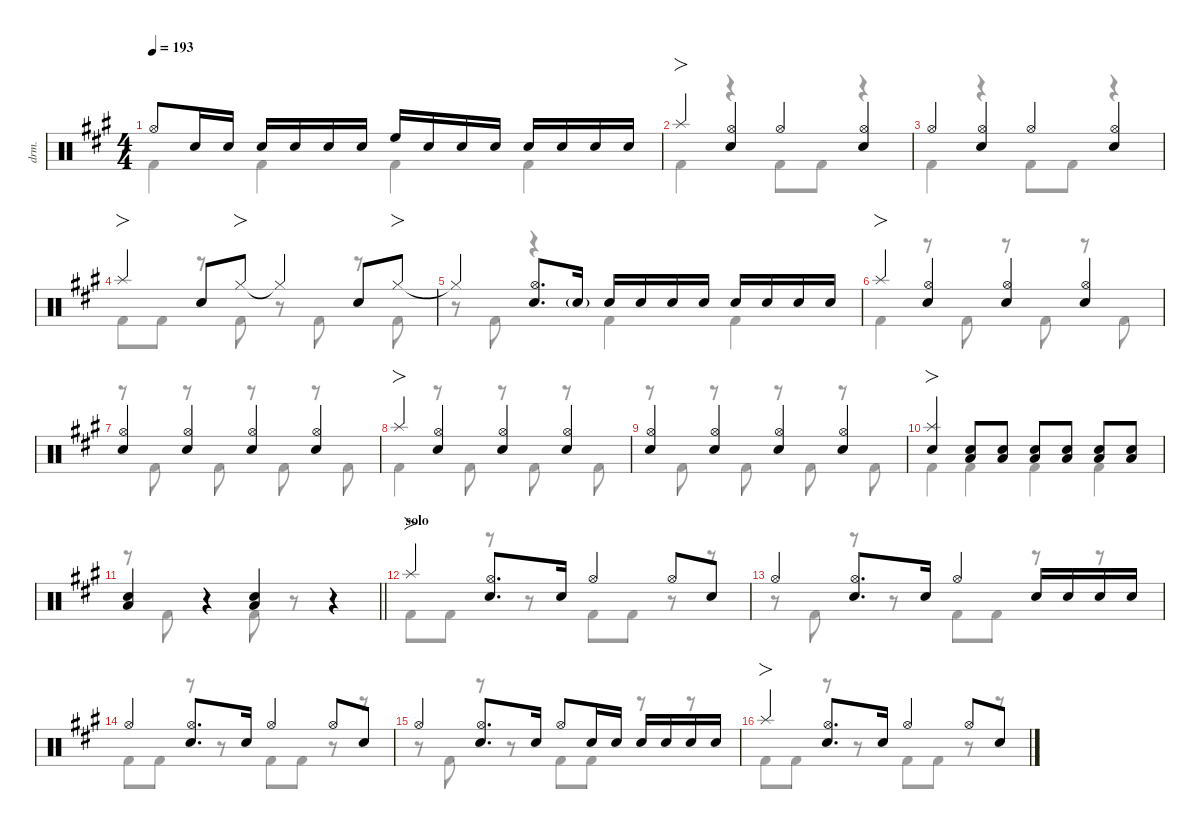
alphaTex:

\defaultSystemsLayout 4
\hideDynamics
\bracketExtendMode nobrackets
\otherSystemsTrackNameOrientation horizontal
\track ("伊地知虹夏" "drm.") {instrument percussion}
\staff {score}
\articulation defaults
\voice
\ts (4 4)
\tempo 193
\clef neutral
\ks a "Hi-Hat (open)"{acc forcenatural}.8{dy mf beam Up} "Snare (hit) 2"{acc forcenatural}.16{beam Up} "Snare (hit) 2"{acc forcenatural}.16{beam Up} "Snare (hit) 2"{acc forcenatural}.16{beam Up} "Snare (hit) 2"{acc forcenatural}.16{beam Up} "Snare (hit) 2"{acc forcenatural}.16{beam Up} "Snare (hit) 2"{acc forcenatural}.16{beam Up} "High Floor Tom (hit)"{acc forcenatural}.16{beam Up} "Snare (hit) 2"{acc forcenatural}.16{beam Up} "Snare (hit) 2"{acc forcenatural}.16{beam Up} "Snare (hit) 2"{acc forcenatural}.16{beam Up} "Snare (hit) 2"{acc forcenatural}.16{beam Up} "Snare (hit) 2"{acc forcenatural}.16{beam Up} "Snare (hit) 2"{acc forcenatural}.16{beam Up} "Snare (hit) 2"{acc forcenatural}.16{beam Up}
|
"Splash (hit)"{acc forcenatural}.4{fo beam Up} ("Hi-Hat (open)"{acc forcenatural} "Snare (hit) 2"{acc forcenatural}).4{beam Up} "Hi-Hat (open)"{acc forcenatural}.4{beam Up} ("Hi-Hat (open)"{acc forcenatural} "Snare (hit) 2"{acc forcenatural}).4{beam Up} |
"Hi-Hat (open)"{acc forcenatural}.4{beam Up} ("Hi-Hat (open)"{acc forcenatural} "Snare (hit) 2"{acc forcenatural}).4{beam Up} "Hi-Hat (open)"{acc forcenatural}.4{beam Up} ("Hi-Hat (open)"{acc forcenatural} "Snare (hit) 2"{acc forcenatural}).4{beam Up} |
"Splash (hit)"{acc forcenatural}.4{fo beam Up} "Snare (hit) 2"{acc forcenatural}.8{beam Up} "Hi-Hat (closed)"{acc forcenatural}.8{fo beam Up} "Hi-Hat (closed)"{t acc forcenatural}.4{beam Up} "Snare (hit) 2"{acc forcenatural}.8{beam Up} "Hi-Hat (closed)"{acc forcenatural}.8{fo beam Up} |
"Hi-Hat (closed)"{t acc forcenatural}.4{beam Up} ("Hi-Hat (open)"{acc forcenatural} "Snare (hit) 2"{acc forcenatural}).8{d beam Up} "Snare (hit) 2"{g acc forcenatural}.16{beam Up} "Snare (hit) 2"{acc forcenatural}.16{beam Up} "Snare (hit) 2"{acc forcenatural}.16{beam Up} "Snare (hit) 2"{acc forcenatural}.16{beam Up} "Snare (hit) 2"{acc forcenatural}.16{beam Up} "Snare (hit) 2"{acc forcenatural}.16{beam Up} "Snare (hit) 2"{acc forcenatural}.16{beam Up} "Snare (hit) 2"{acc forcenatural}.16{beam Up} "Snare (hit) 2"{acc forcenatural}.16{beam Up} |
"Splash (hit)"{acc forcenatural}.4{fo beam Up} ("Hi-Hat (open)"{acc forcenatural} "Snare (hit) 2"{acc forcenatural}).4{beam Up} ("Hi-Hat (open)"{acc forcenatural} "Snare (hit) 2"{acc forcenatural}).4{beam Up} ("Hi-Hat (open)"{acc forcenatural} "Snare (hit) 2"{acc forcenatural}).4{beam Up} |
("Hi-Hat (open)"{acc forcenatural} "Snare (hit) 2"{acc forcenatural}).4{beam Up} ("Hi-Hat (open)"{acc forcenatural} "Snare (hit) 2"{acc forcenatural}).4{beam Up} ("Hi-Hat (open)"{acc forcenatural} "Snare (hit) 2"{acc forcenatural}).4{beam Up} ("Hi-Hat (open)"{acc forcenatural} "Snare (hit) 2"{acc forcenatural}).4{beam Up} |
"Splash (hit)"{acc forcenatural}.4{fo beam Up} ("Hi-Hat (open)"{acc forcenatural} "Snare (hit) 2"{acc forcenatural}).4{beam Up} ("Hi-Hat (open)"{acc forcenatural} "Snare (hit) 2"{acc forcenatural}).4{beam Up} ("Hi-Hat (open)"{acc forcenatural} "Snare (hit) 2"{acc forcenatural}).4{beam Up} |
("Hi-Hat (open)"{acc forcenatural} "Snare (hit) 2"{acc forcenatural}).4{beam Up} ("Hi-Hat (open)"{acc forcenatural} "Snare (hit) 2"{acc forcenatural}).4{beam Up} ("Hi-Hat (open)"{acc forcenatural} "Snare (hit) 2"{acc forcenatural}).4{beam Up} ("Hi-Hat (open)"{acc forcenatural} "Snare (hit) 2"{acc forcenatural}).4{beam Up} |
("Splash (hit)"{acc forcenatural} "Snare (hit) 2"{acc forcenatural}).4{fo beam Up} ("Snare (hit) 2"{acc forcenatural} "Low Tom (hit)"{acc forcenatural}).8{beam Up} ("Snare (hit) 2"{acc forcenatural} "Low Tom (hit)"{acc forcenatural}).8{beam Up} ("Low Tom (hit)"{acc forcenatural} "Snare (hit) 2"{acc forcenatural}).8{beam Up} ("Low Tom (hit)"{acc forcenatural} "Snare (hit) 2"{acc forcenatural}).8{beam Up} ("Low Tom (hit)"{acc forcenatural} "Snare (hit) 2"{acc forcenatural}).8{beam Up} ("Low Tom (hit)"{acc forcenatural} "Snare (hit) 2"{acc forcenatural}).8{beam Up} |
\barLineRight lightlight
("Snare (hit) 2"{acc forcenatural} "Low Tom (hit)"{acc forcenatural}).4{beam Up} r.4{beam Up} ("Low Tom (hit)"{acc forcenatural} "Snare (hit) 2"{acc forcenatural}).4{beam Up} r.4{beam Up} |
\section ("" "solo")
"Splash (hit)"{acc forcenatural}.4{fo beam Up} ("Snare (hit) 2"{acc forcenatural} "Hi-Hat (open)"{acc forcenatural}).8{d beam Up} "Snare (hit) 2"{acc forcenatural}.16{beam Up} "Hi-Hat (open)"{acc forcenatural}.4{beam Up} "Hi-Hat (open)"{acc forcenatural}.8{beam Up} "Snare (hit) 2"{acc forcenatural}.8{beam Up} |
"Hi-Hat (open)"{acc forcenatural}.4{beam Up} ("Hi-Hat (open)"{acc forcenatural} "Snare (hit) 2"{acc forcenatural}).8{d beam Up} "Snare (hit) 2"{acc forcenatural}.16{beam Up} "Hi-Hat (open)"{acc forcenatural}.4{beam Up} "Snare (hit) 2"{acc forcenatural}.16{beam Up} "Snare (hit) 2"{acc forcenatural}.16{beam Up} "Snare (hit) 2"{acc forcenatural}.16{beam Up} "Snare (hit) 2"{acc forcenatural}.16{beam Up} |
"Hi-Hat (open)"{acc forcenatural}.4{beam Up} ("Snare (hit) 2"{acc forcenatural} "Hi-Hat (open)"{acc forcenatural}).8{d beam Up} "Snare (hit) 2"{acc forcenatural}.16{beam Up} "Hi-Hat (open)"{acc forcenatural}.4{beam Up} "Hi-Hat (open)"{acc forcenatural}.8{beam Up} "Snare (hit) 2"{acc forcenatural}.8{beam Up} |
"Hi-Hat (open)"{acc forcenatural}.4{beam Up} ("Hi-Hat (open)"{acc forcenatural} "Snare (hit) 2"{acc forcenatural}).8{d beam Up} "Snare (hit) 2"{acc forcenatural}.16{beam Up} "Hi-Hat (open)"{acc forcenatural}.8{beam Up} "Snare (hit) 2"{acc forcenatural}.16{beam Up} "Snare (hit) 2"{acc forcenatural}.16{beam Up} "Snare (hit) 2"{acc forcenatural}.16{beam Up} "Snare (hit) 2"{acc forcenatural}.16{beam Up} "Snare (hit) 2"{acc forcenatural}.16{beam Up} "Snare (hit) 2"{acc forcenatural}.16{beam Up} |
"Splash (hit)"{acc forcenatural}.4{fo beam Up} ("Snare (hit) 2"{acc forcenatural} "Hi-Hat (open)"{acc forcenatural}).8{d beam Up} "Snare (hit) 2"{acc forcenatural}.16{beam Up} "Hi-Hat (open)"{acc forcenatural}.4{beam Up} "Hi-Hat (open)"{acc forcenatural}.8{beam Up} "Snare (hit) 2"{acc forcenatural}.8{beam Up}
\voice
\clef neutral
\ottava regular
\simile none
\ks a "Kick (hit) 2"{acc forcenatural}.4{dy mf beam Down} "Kick (hit) 2"{acc forcenatural}.4{beam Down} "Kick (hit) 2"{acc forcenatural}.4{beam Down} "Kick (hit) 2"{acc forcenatural}.4{beam Down}
|
"Kick (hit) 2"{acc forcenatural}.4{beam Down} r.4{beam Down} "Kick (hit) 2"{acc forcenatural}.8{beam Down} "Kick (hit) 2"{acc forcenatural}.8{beam Down} r.4{beam Down} |
"Kick (hit) 2"{acc forcenatural}.4{beam Down} r.4{beam Down} "Kick (hit) 2"{acc forcenatural}.8{beam Down} "Kick (hit) 2"{acc forcenatural}.8{beam Down} r.4{beam Down} |
"Kick (hit) 2"{acc forcenatural}.8{beam Down} "Kick (hit) 2"{acc forcenatural}.8{beam Down} r.8{beam Down} "Kick (hit) 2"{acc forcenatural}.8{beam Down} r.8{beam Down} "Kick (hit) 2"{acc forcenatural}.8{beam Down} r.8{beam Down} "Kick (hit) 2"{acc forcenatural}.8{beam Down} |
r.8{beam Down} "Kick (hit) 2"{acc forcenatural}.8{beam Down} r.4{beam Down} "Kick (hit) 2"{acc forcenatural}.4{beam Down} "Kick (hit) 2"{acc forcenatural}.4{beam Down} |
"Kick (hit) 2"{acc forcenatural}.4{beam Down} r.8{beam Down} "Kick (hit) 2"{acc forcenatural}.8{beam Down} r.8{beam Down} "Kick (hit) 2"{acc forcenatural}.8{beam Down} r.8{beam Down} "Kick (hit) 2"{acc forcenatural}.8{beam Down} |
r.8{beam Down} "Kick (hit) 2"{acc forcenatural}.8{beam Down} r.8{beam Down} "Kick (hit) 2"{acc forcenatural}.8{beam Down} r.8{beam Down} "Kick (hit) 2"{acc forcenatural}.8{beam Down} r.8{beam Down} "Kick (hit) 2"{acc forcenatural}.8{beam Down} |
"Kick (hit) 2"{acc forcenatural}.4{beam Down} r.8{beam Down} "Kick (hit) 2"{acc forcenatural}.8{beam Down} r.8{beam Down} "Kick (hit) 2"{acc forcenatural}.8{beam Down} r.8{beam Down} "Kick (hit) 2"{acc forcenatural}.8{beam Down} |
r.8{beam Down} "Kick (hit) 2"{acc forcenatural}.8{beam Down} r.8{beam Down} "Kick (hit) 2"{acc forcenatural}.8{beam Down} r.8{beam Down} "Kick (hit) 2"{acc forcenatural}.8{beam Down} r.8{beam Down} "Kick (hit) 2"{acc forcenatural}.8{beam Down} |
"Kick (hit) 2"{acc forcenatural}.4{beam Down} "Kick (hit) 2"{acc forcenatural}.4{beam Down} "Kick (hit) 2"{acc forcenatural}.4{beam Down} "Kick (hit) 2"{acc forcenatural}.4{beam Down} |
\barLineRight lightlight
r.8{beam Down} "Kick (hit) 2"{acc forcenatural}.8{beam Down} r.4{beam Down} "Kick (hit) 2"{acc forcenatural}.8{beam Down} r.8{beam Down} r.4{beam Down} |
"Kick (hit) 2"{acc forcenatural}.8{beam Down} "Kick (hit) 2"{acc forcenatural}.8{beam Down} r.8{beam Down} r.8{beam Down} "Kick (hit) 2"{acc forcenatural}.8{beam Down} "Kick (hit) 2"{acc forcenatural}.8{beam Down} r.8{beam Down} r.8{beam Down} |
r.8{beam Down} "Kick (hit) 2"{acc forcenatural}.8{beam Down} r.8{beam Down} r.8{beam Down} "Kick (hit) 2"{acc forcenatural}.8{beam Down} "Kick (hit) 2"{acc forcenatural}.8{beam Down} r.8{beam Down} r.8{beam Down} |
"Kick (hit) 2"{acc forcenatural}.8{beam Down} "Kick (hit) 2"{acc forcenatural}.8{beam Down} r.8{beam Down} r.8{beam Down} "Kick (hit) 2"{acc forcenatural}.8{beam Down} "Kick (hit) 2"{acc forcenatural}.8{beam Down} r.8{beam Down} r.8{beam Down} |
r.8{beam Down} "Kick (hit) 2"{acc forcenatural}.8{beam Down} r.8{beam Down} r.8{beam Down} "Kick (hit) 2"{acc forcenatural}.8{beam Down} "Kick (hit) 2"{acc forcenatural}.8{beam Down} r.8{beam Down} r.8{beam Down} |
"Kick (hit) 2"{acc forcenatural}.8{beam Down} "Kick (hit) 2"{acc forcenatural}.8{beam Down} r.8{beam Down} r.8{beam Down} "Kick (hit) 2"{acc forcenatural}.8{beam Down} "Kick (hit) 2"{acc forcenatural}.8{beam Down} r.8{beam Down} r.8{beam Down}
